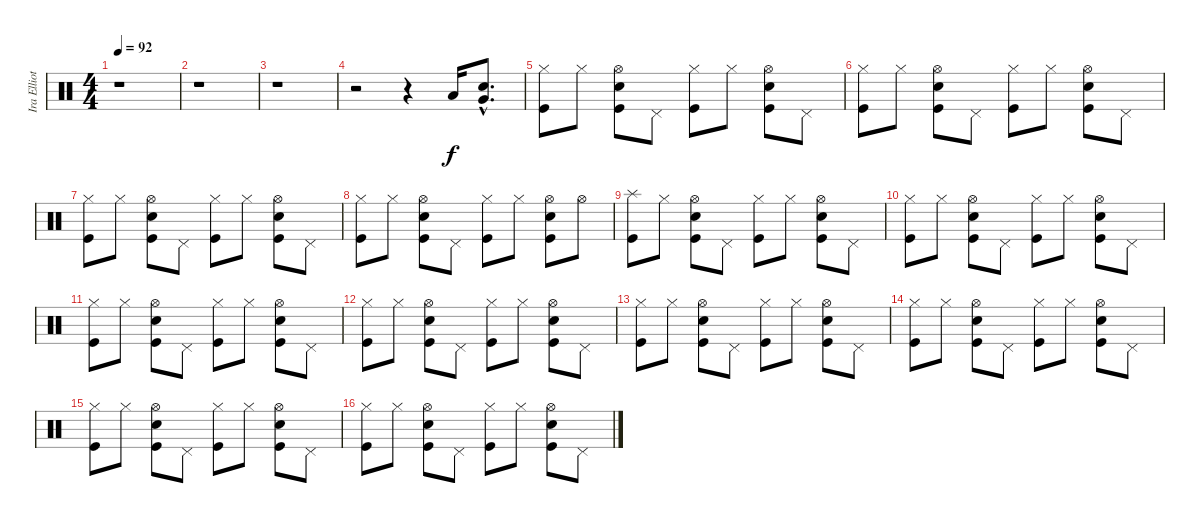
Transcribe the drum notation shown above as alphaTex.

\track ("Ira Elliot" "Ira Elliot") {instrument percussion}
\staff {score}
\articulation defaults
\ts (4 4)
\tempo 92
\clef neutral
\ks c
r.1{dy f} |
r.1 |
r.1 |
r.2 r.4 "Low Floor Tom (hit)".16 ("Snare (hit) 2"{hac} "Very Low Tom (hit)"{hac}).8{d} |
("Hi-Hat (closed)" "Kick (hit)").8 "Hi-Hat (closed)".8 ("Snare (hit) 2" "Hi-Hat (open)" "Kick (hit)").8 "Pedal Hi-Hat (hit)".8 ("Hi-Hat (closed)" "Kick (hit)").8 "Hi-Hat (closed)".8 ("Snare (hit) 2" "Hi-Hat (open)" "Kick (hit)").8 "Pedal Hi-Hat (hit)".8 |
("Hi-Hat (closed)" "Kick (hit)").8 "Hi-Hat (closed)".8 ("Snare (hit) 2" "Hi-Hat (open)" "Kick (hit)").8 "Pedal Hi-Hat (hit)".8 ("Hi-Hat (closed)" "Kick (hit)").8 "Hi-Hat (closed)".8 ("Snare (hit) 2" "Hi-Hat (open)" "Kick (hit)").8 "Pedal Hi-Hat (hit)".8 |
("Hi-Hat (closed)" "Kick (hit)").8 "Hi-Hat (closed)".8 ("Snare (hit) 2" "Hi-Hat (open)" "Kick (hit)").8 "Pedal Hi-Hat (hit)".8 ("Hi-Hat (closed)" "Kick (hit)").8 "Hi-Hat (closed)".8 ("Snare (hit) 2" "Hi-Hat (open)" "Kick (hit)").8 "Pedal Hi-Hat (hit)".8 |
("Hi-Hat (closed)" "Kick (hit)").8 "Hi-Hat (closed)".8 ("Snare (hit) 2" "Hi-Hat (open)" "Kick (hit)").8 "Pedal Hi-Hat (hit)".8 ("Hi-Hat (closed)" "Kick (hit)").8 "Hi-Hat (closed)".8 ("Snare (hit) 2" "Hi-Hat (open)" "Kick (hit)").8 "Hi-Hat (open)".8 |
("Splash (hit)" "Kick (hit)").8 "Hi-Hat (closed)".8 ("Snare (hit) 2" "Hi-Hat (open)" "Kick (hit)").8 "Pedal Hi-Hat (hit)".8 ("Hi-Hat (closed)" "Kick (hit)").8 "Hi-Hat (closed)".8 ("Snare (hit) 2" "Hi-Hat (open)" "Kick (hit)").8 "Pedal Hi-Hat (hit)".8 |
("Hi-Hat (closed)" "Kick (hit)").8 "Hi-Hat (closed)".8 ("Snare (hit) 2" "Hi-Hat (open)" "Kick (hit)").8 "Pedal Hi-Hat (hit)".8 ("Hi-Hat (closed)" "Kick (hit)").8 "Hi-Hat (closed)".8 ("Snare (hit) 2" "Hi-Hat (open)" "Kick (hit)").8 "Pedal Hi-Hat (hit)".8 |
("Hi-Hat (closed)" "Kick (hit)").8 "Hi-Hat (closed)".8 ("Snare (hit) 2" "Hi-Hat (open)" "Kick (hit)").8 "Pedal Hi-Hat (hit)".8 ("Hi-Hat (closed)" "Kick (hit)").8 "Hi-Hat (closed)".8 ("Snare (hit) 2" "Hi-Hat (open)" "Kick (hit)").8 "Pedal Hi-Hat (hit)".8 |
("Hi-Hat (closed)" "Kick (hit)").8 "Hi-Hat (closed)".8 ("Snare (hit) 2" "Hi-Hat (open)" "Kick (hit)").8 "Pedal Hi-Hat (hit)".8 ("Hi-Hat (closed)" "Kick (hit)").8 "Hi-Hat (closed)".8 ("Snare (hit) 2" "Hi-Hat (open)" "Kick (hit)").8 "Pedal Hi-Hat (hit)".8 |
("Hi-Hat (closed)" "Kick (hit)").8 "Hi-Hat (closed)".8 ("Snare (hit) 2" "Hi-Hat (open)" "Kick (hit)").8 "Pedal Hi-Hat (hit)".8 ("Hi-Hat (closed)" "Kick (hit)").8 "Hi-Hat (closed)".8 ("Snare (hit) 2" "Hi-Hat (open)" "Kick (hit)").8 "Pedal Hi-Hat (hit)".8 |
("Hi-Hat (closed)" "Kick (hit)").8 "Hi-Hat (closed)".8 ("Snare (hit) 2" "Hi-Hat (open)" "Kick (hit)").8 "Pedal Hi-Hat (hit)".8 ("Hi-Hat (closed)" "Kick (hit)").8 "Hi-Hat (closed)".8 ("Snare (hit) 2" "Hi-Hat (open)" "Kick (hit)").8 "Pedal Hi-Hat (hit)".8 |
("Hi-Hat (closed)" "Kick (hit)").8 "Hi-Hat (closed)".8 ("Snare (hit) 2" "Hi-Hat (open)" "Kick (hit)").8 "Pedal Hi-Hat (hit)".8 ("Hi-Hat (closed)" "Kick (hit)").8 "Hi-Hat (closed)".8 ("Snare (hit) 2" "Hi-Hat (open)" "Kick (hit)").8 "Pedal Hi-Hat (hit)".8 |
("Hi-Hat (closed)" "Kick (hit)").8 "Hi-Hat (closed)".8 ("Snare (hit) 2" "Hi-Hat (open)" "Kick (hit)").8 "Pedal Hi-Hat (hit)".8 ("Hi-Hat (closed)" "Kick (hit)").8 "Hi-Hat (closed)".8 ("Snare (hit) 2" "Hi-Hat (open)" "Kick (hit)").8 "Pedal Hi-Hat (hit)".8
